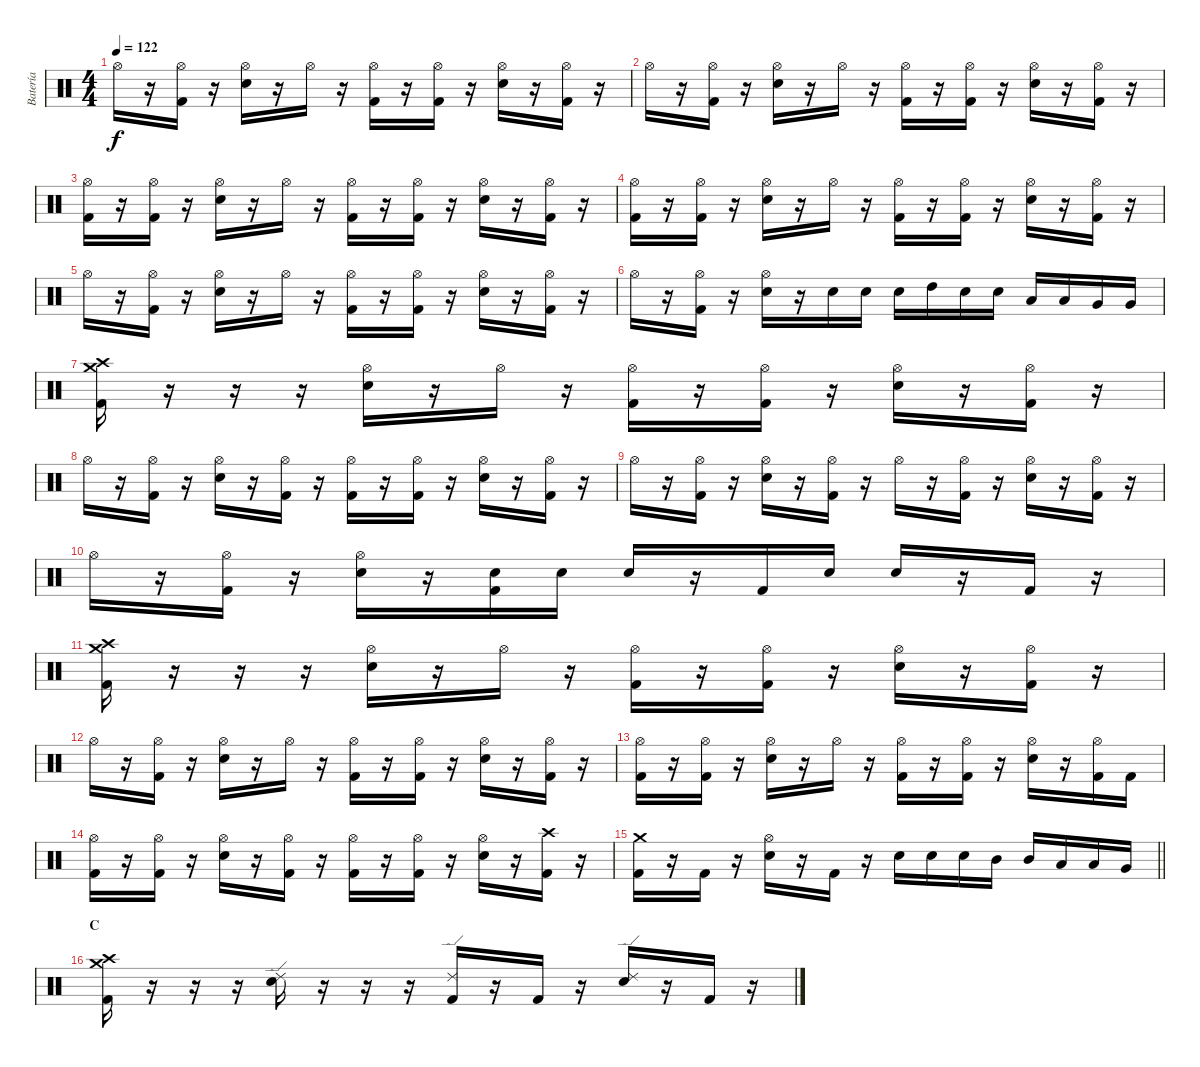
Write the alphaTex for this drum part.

\track ("Batería" "Batería") {instrument percussion}
\staff {score}
\articulation defaults
\ts (4 4)
\tempo 122
\clef neutral
\ks c "Hi-Hat (open)".16{dy f}
r.16 ("Kick (hit) 2" "Hi-Hat (open)").16 r.16 ("Electric Snare (hit)" "Hi-Hat (open)").16 r.16 "Hi-Hat (open)".16 r.16 ("Kick (hit) 2" "Hi-Hat (open)").16 r.16 ("Kick (hit) 2" "Hi-Hat (open)").16 r.16 ("Electric Snare (hit)" "Hi-Hat (open)").16 r.16 ("Kick (hit) 2" "Hi-Hat (open)").16 r.16 |
"Hi-Hat (open)".16 r.16 ("Kick (hit) 2" "Hi-Hat (open)").16 r.16 ("Electric Snare (hit)" "Hi-Hat (open)").16 r.16 "Hi-Hat (open)".16 r.16 ("Kick (hit) 2" "Hi-Hat (open)").16 r.16 ("Kick (hit) 2" "Hi-Hat (open)").16 r.16 ("Electric Snare (hit)" "Hi-Hat (open)").16 r.16 ("Kick (hit) 2" "Hi-Hat (open)").16 r.16 |
("Kick (hit) 2" "Hi-Hat (open)").16 r.16 ("Kick (hit) 2" "Hi-Hat (open)").16 r.16 ("Electric Snare (hit)" "Hi-Hat (open)").16 r.16 "Hi-Hat (open)".16 r.16 ("Kick (hit) 2" "Hi-Hat (open)").16 r.16 ("Kick (hit) 2" "Hi-Hat (open)").16 r.16 ("Electric Snare (hit)" "Hi-Hat (open)").16 r.16 ("Kick (hit) 2" "Hi-Hat (open)").16 r.16 |
("Kick (hit) 2" "Hi-Hat (open)").16 r.16 ("Kick (hit) 2" "Hi-Hat (open)").16 r.16 ("Electric Snare (hit)" "Hi-Hat (open)").16 r.16 "Hi-Hat (open)".16 r.16 ("Kick (hit) 2" "Hi-Hat (open)").16 r.16 ("Kick (hit) 2" "Hi-Hat (open)").16 r.16 ("Electric Snare (hit)" "Hi-Hat (open)").16 r.16 ("Kick (hit) 2" "Hi-Hat (open)").16 r.16 |
"Hi-Hat (open)".16 r.16 ("Kick (hit) 2" "Hi-Hat (open)").16 r.16 ("Electric Snare (hit)" "Hi-Hat (open)").16 r.16 "Hi-Hat (open)".16 r.16 ("Kick (hit) 2" "Hi-Hat (open)").16 r.16 ("Kick (hit) 2" "Hi-Hat (open)").16 r.16 ("Electric Snare (hit)" "Hi-Hat (open)").16 r.16 ("Kick (hit) 2" "Hi-Hat (open)").16 r.16 |
"Hi-Hat (open)".16 r.16 ("Kick (hit) 2" "Hi-Hat (open)").16 r.16 ("Electric Snare (hit)" "Hi-Hat (open)").16 r.16 "Electric Snare (hit)".16 "Electric Snare (hit)".16 "Electric Snare (hit)".16 "High Tom (hit)".16 "Electric Snare (hit)".16 "Electric Snare (hit)".16 "Low Tom (hit)".16 "Low Tom (hit)".16 "Very Low Tom (hit)".16 "Very Low Tom (hit)".16 |
("Crash medium (hit)" "Kick (hit) 2" "Crash high (hit)").16 r.16 r.16 r.16 ("Electric Snare (hit)" "Hi-Hat (open)").16 r.16 "Hi-Hat (open)".16 r.16 ("Kick (hit) 2" "Hi-Hat (open)").16 r.16 ("Kick (hit) 2" "Hi-Hat (open)").16 r.16 ("Electric Snare (hit)" "Hi-Hat (open)").16 r.16 ("Kick (hit) 2" "Hi-Hat (open)").16 r.16 |
"Hi-Hat (open)".16 r.16 ("Kick (hit) 2" "Hi-Hat (open)").16 r.16 ("Electric Snare (hit)" "Hi-Hat (open)").16 r.16 ("Kick (hit) 2" "Hi-Hat (open)").16 r.16 ("Kick (hit) 2" "Hi-Hat (open)").16 r.16 ("Kick (hit) 2" "Hi-Hat (open)").16 r.16 ("Electric Snare (hit)" "Hi-Hat (open)").16 r.16 ("Kick (hit) 2" "Hi-Hat (open)").16 r.16 |
"Hi-Hat (open)".16 r.16 ("Kick (hit) 2" "Hi-Hat (open)").16 r.16 ("Electric Snare (hit)" "Hi-Hat (open)").16 r.16 ("Kick (hit) 2" "Hi-Hat (open)").16 r.16 "Hi-Hat (open)".16 r.16 ("Kick (hit) 2" "Hi-Hat (open)").16 r.16 ("Electric Snare (hit)" "Hi-Hat (open)").16 r.16 ("Kick (hit) 2" "Hi-Hat (open)").16 r.16 |
"Hi-Hat (open)".16 r.16 ("Kick (hit) 2" "Hi-Hat (open)").16 r.16 ("Electric Snare (hit)" "Hi-Hat (open)").16 r.16 ("Electric Snare (hit)" "Kick (hit) 2").16 "Electric Snare (hit)".16 "Electric Snare (hit)".16 r.16 "Kick (hit) 2".16 "Electric Snare (hit)".16 "Electric Snare (hit)".16 r.16 "Kick (hit) 2".16 r.16 |
("Crash medium (hit)" "Kick (hit) 2" "Crash high (hit)").16 r.16 r.16 r.16 ("Electric Snare (hit)" "Hi-Hat (open)").16 r.16 "Hi-Hat (open)".16 r.16 ("Kick (hit) 2" "Hi-Hat (open)").16 r.16 ("Kick (hit) 2" "Hi-Hat (open)").16 r.16 ("Electric Snare (hit)" "Hi-Hat (open)").16 r.16 ("Kick (hit) 2" "Hi-Hat (open)").16 r.16 |
"Hi-Hat (open)".16 r.16 ("Kick (hit) 2" "Hi-Hat (open)").16 r.16 ("Electric Snare (hit)" "Hi-Hat (open)").16 r.16 "Hi-Hat (open)".16 r.16 ("Kick (hit) 2" "Hi-Hat (open)").16 r.16 ("Kick (hit) 2" "Hi-Hat (open)").16 r.16 ("Electric Snare (hit)" "Hi-Hat (open)").16 r.16 ("Kick (hit) 2" "Hi-Hat (open)").16 r.16 |
("Kick (hit) 2" "Hi-Hat (open)").16 r.16 ("Kick (hit) 2" "Hi-Hat (open)").16 r.16 ("Electric Snare (hit)" "Hi-Hat (open)").16 r.16 "Hi-Hat (open)".16 r.16 ("Kick (hit) 2" "Hi-Hat (open)").16 r.16 ("Kick (hit) 2" "Hi-Hat (open)").16 r.16 ("Electric Snare (hit)" "Hi-Hat (open)").16 r.16 ("Kick (hit) 2" "Hi-Hat (open)").16 "Kick (hit) 2".16 |
("Kick (hit) 2" "Hi-Hat (open)").16 r.16 ("Kick (hit) 2" "Hi-Hat (open)").16 r.16 ("Electric Snare (hit)" "Hi-Hat (open)").16 r.16 ("Kick (hit) 2" "Hi-Hat (open)").16 r.16 ("Kick (hit) 2" "Hi-Hat (open)").16 r.16 ("Kick (hit) 2" "Hi-Hat (open)").16 r.16 ("Electric Snare (hit)" "Hi-Hat (open)").16 r.16 ("Kick (hit) 2" "Crash high (hit)").16 r.16 |
\barLineRight lightlight
("Kick (hit) 2" "Crash medium (hit)").16 r.16 "Kick (hit) 2".16 r.16 ("Electric Snare (hit)" "Hi-Hat (open)").16 r.16 "Kick (hit) 2".16 r.16 "Electric Snare (hit)".16 "Electric Snare (hit)".16 "Electric Snare (hit)".16 "Mid Tom (hit)".16 "Mid Tom (hit)".16 "Low Tom (hit)".16 "Low Tom (hit)".16 "Very Low Tom (hit)".16 |
\section ("" "C")
("Crash medium (hit)" "Kick (hit) 2" "Crash high (hit)").16 r.16 r.16 r.16 ("Electric Snare (hit)" "Ride (edge) 2").16 r.16 r.16 r.16 ("Kick (hit) 2" "Ride (edge) 2").16 r.16 "Kick (hit) 2".16 r.16 ("Electric Snare (hit)" "Ride (edge) 2").16 r.16 "Kick (hit) 2".16 r.16
